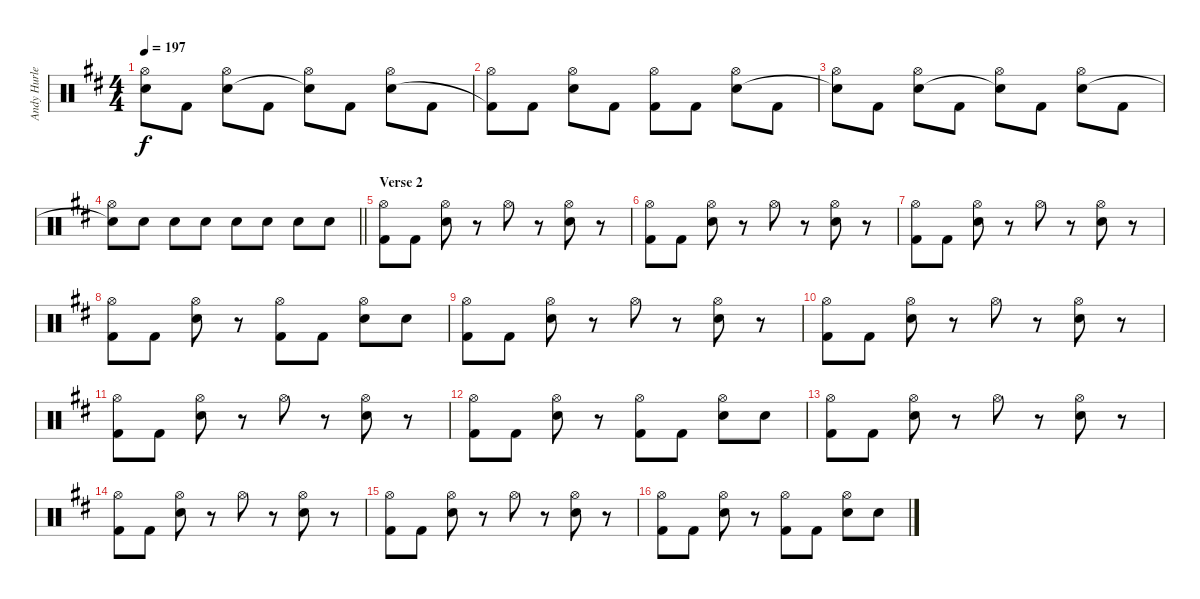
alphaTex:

\track ("Andy Hurley (Drums)" "Andy Hurle") {instrument percussion}
\staff {score}
\articulation defaults
\ts (4 4)
\tempo 197
\clef neutral
\ks d
("Hi-Hat (open)" "Snare (hit)"{t}).8{dy f} "Kick (hit) 2".8 ("Hi-Hat (open)" "Electric Snare (hit)").8 "Kick (hit) 2".8 ("Hi-Hat (open)" "Snare (hit)"{t}).8 "Kick (hit) 2".8 ("Hi-Hat (open)" "Electric Snare (hit)").8 "Kick (hit) 2".8 |
("Hi-Hat (open)" "Kick (hit) 2"{t}).8 "Kick (hit) 2".8 ("Hi-Hat (open)" "Electric Snare (hit)").8 "Kick (hit) 2".8 ("Hi-Hat (open)" "Kick (hit) 2").8 "Kick (hit) 2".8 ("Hi-Hat (open)" "Electric Snare (hit)").8 "Kick (hit) 2".8 |
("Hi-Hat (open)" "Snare (hit)"{t}).8 "Kick (hit) 2".8 ("Hi-Hat (open)" "Electric Snare (hit)").8 "Kick (hit) 2".8 ("Hi-Hat (open)" "Snare (hit)"{t}).8 "Kick (hit) 2".8 ("Hi-Hat (open)" "Electric Snare (hit)").8 "Kick (hit) 2".8 |
\barLineRight lightlight
("Hi-Hat (open)" "Snare (hit)"{t}).8 "Electric Snare (hit)".8 "Electric Snare (hit)".8 "Electric Snare (hit)".8 "Electric Snare (hit)".8 "Electric Snare (hit)".8 "Electric Snare (hit)".8 "Electric Snare (hit)".8 |
\section ("" "Verse 2")
("Hi-Hat (open)" "Kick (hit) 2").8 "Kick (hit) 2".8 ("Hi-Hat (open)" "Electric Snare (hit)").8 r.8 "Hi-Hat (open)".8 r.8 ("Hi-Hat (open)" "Electric Snare (hit)").8 r.8 |
("Hi-Hat (open)" "Kick (hit) 2").8 "Kick (hit) 2".8 ("Hi-Hat (open)" "Electric Snare (hit)").8 r.8 "Hi-Hat (open)".8 r.8 ("Hi-Hat (open)" "Electric Snare (hit)").8 r.8 |
("Hi-Hat (open)" "Kick (hit) 2").8 "Kick (hit) 2".8 ("Hi-Hat (open)" "Electric Snare (hit)").8 r.8 "Hi-Hat (open)".8 r.8 ("Hi-Hat (open)" "Electric Snare (hit)").8 r.8 |
("Hi-Hat (open)" "Kick (hit) 2").8 "Kick (hit) 2".8 ("Hi-Hat (open)" "Electric Snare (hit)").8 r.8 ("Hi-Hat (open)" "Kick (hit) 2").8 "Kick (hit) 2".8 ("Hi-Hat (open)" "Electric Snare (hit)").8 "Electric Snare (hit)".8 |
("Hi-Hat (open)" "Kick (hit) 2").8 "Kick (hit) 2".8 ("Hi-Hat (open)" "Electric Snare (hit)").8 r.8 "Hi-Hat (open)".8 r.8 ("Hi-Hat (open)" "Electric Snare (hit)").8 r.8 |
("Hi-Hat (open)" "Kick (hit) 2").8 "Kick (hit) 2".8 ("Hi-Hat (open)" "Electric Snare (hit)").8 r.8 "Hi-Hat (open)".8 r.8 ("Hi-Hat (open)" "Electric Snare (hit)").8 r.8 |
("Hi-Hat (open)" "Kick (hit) 2").8 "Kick (hit) 2".8 ("Hi-Hat (open)" "Electric Snare (hit)").8 r.8 "Hi-Hat (open)".8 r.8 ("Hi-Hat (open)" "Electric Snare (hit)").8 r.8 |
("Hi-Hat (open)" "Kick (hit) 2").8 "Kick (hit) 2".8 ("Hi-Hat (open)" "Electric Snare (hit)").8 r.8 ("Hi-Hat (open)" "Kick (hit) 2").8 "Kick (hit) 2".8 ("Hi-Hat (open)" "Electric Snare (hit)").8 "Electric Snare (hit)".8 |
("Hi-Hat (open)" "Kick (hit) 2").8 "Kick (hit) 2".8 ("Hi-Hat (open)" "Electric Snare (hit)").8 r.8 "Hi-Hat (open)".8 r.8 ("Hi-Hat (open)" "Electric Snare (hit)").8 r.8 |
("Hi-Hat (open)" "Kick (hit) 2").8 "Kick (hit) 2".8 ("Hi-Hat (open)" "Electric Snare (hit)").8 r.8 "Hi-Hat (open)".8 r.8 ("Hi-Hat (open)" "Electric Snare (hit)").8 r.8 |
("Hi-Hat (open)" "Kick (hit) 2").8 "Kick (hit) 2".8 ("Hi-Hat (open)" "Electric Snare (hit)").8 r.8 "Hi-Hat (open)".8 r.8 ("Hi-Hat (open)" "Electric Snare (hit)").8 r.8 |
("Hi-Hat (open)" "Kick (hit) 2").8 "Kick (hit) 2".8 ("Hi-Hat (open)" "Electric Snare (hit)").8 r.8 ("Hi-Hat (open)" "Kick (hit) 2").8 "Kick (hit) 2".8 ("Hi-Hat (open)" "Electric Snare (hit)").8 "Electric Snare (hit)".8
